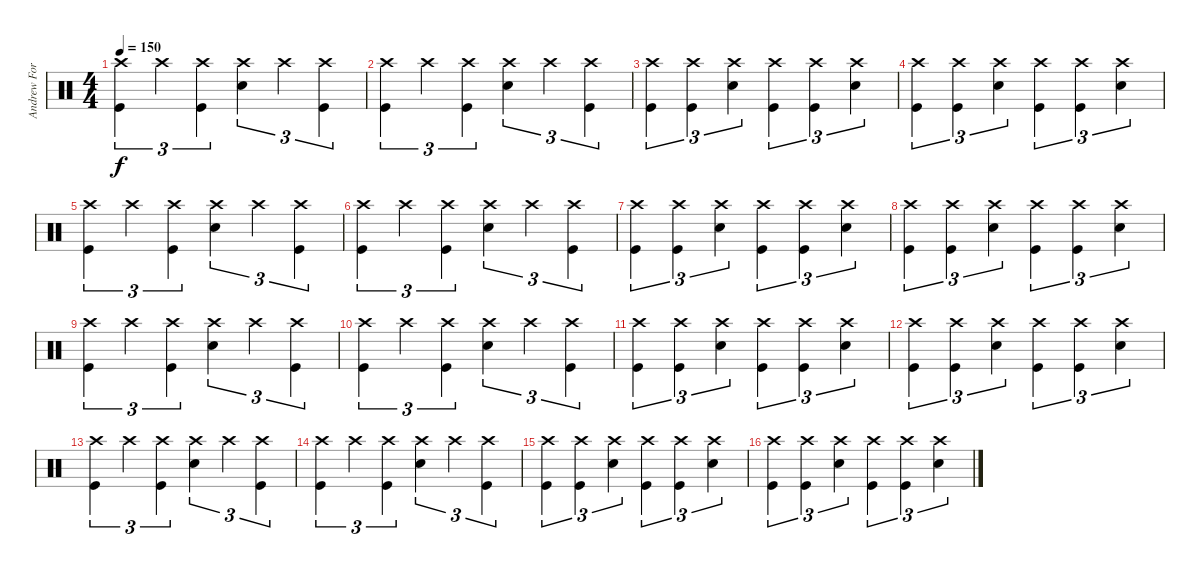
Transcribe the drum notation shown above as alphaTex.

\track ("Andrew Forsman" "Andrew For") {instrument percussion}
\staff {score}
\articulation defaults
\ts (4 4)
\tempo 150
\clef neutral
\ks c
("Crash high (hit)" "Kick (hit)").4{tu (3 2) dy f} "Crash high (hit)".4{tu (3 2)} ("Crash high (hit)" "Kick (hit)").4{tu (3 2)} ("Crash high (hit)" "Snare (hit) 2").4{tu (3 2)} "Crash high (hit)".4{tu (3 2)} ("Crash high (hit)" "Kick (hit)").4{tu (3 2)} |
("Crash high (hit)" "Kick (hit)").4{tu (3 2)} "Crash high (hit)".4{tu (3 2)} ("Crash high (hit)" "Kick (hit)").4{tu (3 2)} ("Crash high (hit)" "Snare (hit) 2").4{tu (3 2)} "Crash high (hit)".4{tu (3 2)} ("Crash high (hit)" "Kick (hit)").4{tu (3 2)} |
("Crash high (hit)" "Kick (hit)").4{tu (3 2)} ("Crash high (hit)" "Kick (hit)").4{tu (3 2)} ("Crash high (hit)" "Snare (hit) 2").4{tu (3 2)} ("Crash high (hit)" "Kick (hit)").4{tu (3 2)} ("Crash high (hit)" "Kick (hit)").4{tu (3 2)} ("Crash high (hit)" "Snare (hit) 2").4{tu (3 2)} |
("Crash high (hit)" "Kick (hit)").4{tu (3 2)} ("Crash high (hit)" "Kick (hit)").4{tu (3 2)} ("Crash high (hit)" "Snare (hit) 2").4{tu (3 2)} ("Crash high (hit)" "Kick (hit)").4{tu (3 2)} ("Crash high (hit)" "Kick (hit)").4{tu (3 2)} ("Crash high (hit)" "Snare (hit) 2").4{tu (3 2)} |
("Crash high (hit)" "Kick (hit)").4{tu (3 2)} "Crash high (hit)".4{tu (3 2)} ("Crash high (hit)" "Kick (hit)").4{tu (3 2)} ("Crash high (hit)" "Snare (hit) 2").4{tu (3 2)} "Crash high (hit)".4{tu (3 2)} ("Crash high (hit)" "Kick (hit)").4{tu (3 2)} |
("Crash high (hit)" "Kick (hit)").4{tu (3 2)} "Crash high (hit)".4{tu (3 2)} ("Crash high (hit)" "Kick (hit)").4{tu (3 2)} ("Crash high (hit)" "Snare (hit) 2").4{tu (3 2)} "Crash high (hit)".4{tu (3 2)} ("Crash high (hit)" "Kick (hit)").4{tu (3 2)} |
("Crash high (hit)" "Kick (hit)").4{tu (3 2)} ("Crash high (hit)" "Kick (hit)").4{tu (3 2)} ("Crash high (hit)" "Snare (hit) 2").4{tu (3 2)} ("Crash high (hit)" "Kick (hit)").4{tu (3 2)} ("Crash high (hit)" "Kick (hit)").4{tu (3 2)} ("Crash high (hit)" "Snare (hit) 2").4{tu (3 2)} |
("Crash high (hit)" "Kick (hit)").4{tu (3 2)} ("Crash high (hit)" "Kick (hit)").4{tu (3 2)} ("Crash high (hit)" "Snare (hit) 2").4{tu (3 2)} ("Crash high (hit)" "Kick (hit)").4{tu (3 2)} ("Crash high (hit)" "Kick (hit)").4{tu (3 2)} ("Crash high (hit)" "Snare (hit) 2").4{tu (3 2)} |
("Crash high (hit)" "Kick (hit)").4{tu (3 2)} "Crash high (hit)".4{tu (3 2)} ("Crash high (hit)" "Kick (hit)").4{tu (3 2)} ("Crash high (hit)" "Snare (hit) 2").4{tu (3 2)} "Crash high (hit)".4{tu (3 2)} ("Crash high (hit)" "Kick (hit)").4{tu (3 2)} |
("Crash high (hit)" "Kick (hit)").4{tu (3 2)} "Crash high (hit)".4{tu (3 2)} ("Crash high (hit)" "Kick (hit)").4{tu (3 2)} ("Crash high (hit)" "Snare (hit) 2").4{tu (3 2)} "Crash high (hit)".4{tu (3 2)} ("Crash high (hit)" "Kick (hit)").4{tu (3 2)} |
("Crash high (hit)" "Kick (hit)").4{tu (3 2)} ("Crash high (hit)" "Kick (hit)").4{tu (3 2)} ("Crash high (hit)" "Snare (hit) 2").4{tu (3 2)} ("Crash high (hit)" "Kick (hit)").4{tu (3 2)} ("Crash high (hit)" "Kick (hit)").4{tu (3 2)} ("Crash high (hit)" "Snare (hit) 2").4{tu (3 2)} |
("Crash high (hit)" "Kick (hit)").4{tu (3 2)} ("Crash high (hit)" "Kick (hit)").4{tu (3 2)} ("Crash high (hit)" "Snare (hit) 2").4{tu (3 2)} ("Crash high (hit)" "Kick (hit)").4{tu (3 2)} ("Crash high (hit)" "Kick (hit)").4{tu (3 2)} ("Crash high (hit)" "Snare (hit) 2").4{tu (3 2)} |
("Crash high (hit)" "Kick (hit)").4{tu (3 2)} "Crash high (hit)".4{tu (3 2)} ("Crash high (hit)" "Kick (hit)").4{tu (3 2)} ("Crash high (hit)" "Snare (hit) 2").4{tu (3 2)} "Crash high (hit)".4{tu (3 2)} ("Crash high (hit)" "Kick (hit)").4{tu (3 2)} |
("Crash high (hit)" "Kick (hit)").4{tu (3 2)} "Crash high (hit)".4{tu (3 2)} ("Crash high (hit)" "Kick (hit)").4{tu (3 2)} ("Crash high (hit)" "Snare (hit) 2").4{tu (3 2)} "Crash high (hit)".4{tu (3 2)} ("Crash high (hit)" "Kick (hit)").4{tu (3 2)} |
("Crash high (hit)" "Kick (hit)").4{tu (3 2)} ("Crash high (hit)" "Kick (hit)").4{tu (3 2)} ("Crash high (hit)" "Snare (hit) 2").4{tu (3 2)} ("Crash high (hit)" "Kick (hit)").4{tu (3 2)} ("Crash high (hit)" "Kick (hit)").4{tu (3 2)} ("Crash high (hit)" "Snare (hit) 2").4{tu (3 2)} |
("Crash high (hit)" "Kick (hit)").4{tu (3 2)} ("Crash high (hit)" "Kick (hit)").4{tu (3 2)} ("Crash high (hit)" "Snare (hit) 2").4{tu (3 2)} ("Crash high (hit)" "Kick (hit)").4{tu (3 2)} ("Crash high (hit)" "Kick (hit)").4{tu (3 2)} ("Crash high (hit)" "Snare (hit) 2").4{tu (3 2)}
